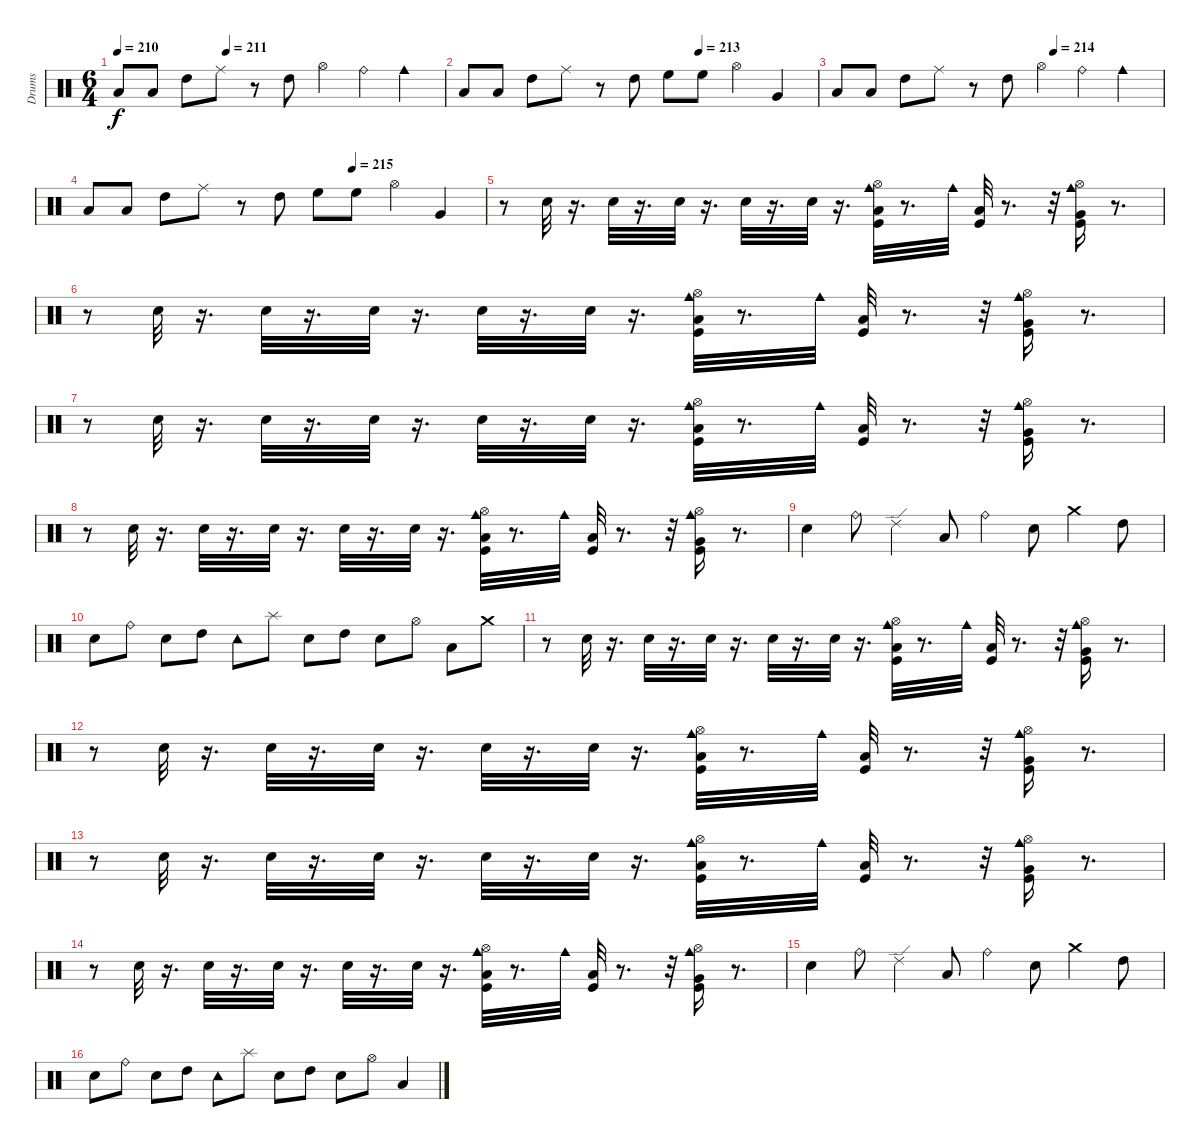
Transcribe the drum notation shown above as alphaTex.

\track ("Drums" "Drums") {instrument percussion}
\staff {score}
\articulation defaults
\ts (6 4)
\tempo 210
\tempo (211 0.3333333333333333)
\clef neutral
\ks c "Low Floor Tom (hit)".8{dy f} "Low Floor Tom (hit)".8 "High Tom (hit)".8 "Ride (middle)".8
r.8 "High Tom (hit)".8 "Hi-Hat (open)".4 "Ride (bell)".4 "Cowbell medium (hit)".4 |
\tempo (213 0.6666666666666666)
"Low Floor Tom (hit)".8 "Low Floor Tom (hit)".8 "High Tom (hit)".8 "Ride (middle)".8 r.8 "High Tom (hit)".8 "High Floor Tom (hit)".8 "High Floor Tom (hit)".8 "Hi-Hat (open)".4 "Very Low Tom (hit)".4 |
\tempo (214 0.6666666666666666)
"Low Floor Tom (hit)".8 "Low Floor Tom (hit)".8 "High Tom (hit)".8 "Ride (middle)".8 r.8 "High Tom (hit)".8 "Hi-Hat (open)".4 "Ride (bell)".4 "Cowbell medium (hit)".4 |
\tempo (215 0.6666666666666666)
"Low Floor Tom (hit)".8 "Low Floor Tom (hit)".8 "High Tom (hit)".8 "Ride (middle)".8 r.8 "High Tom (hit)".8 "High Floor Tom (hit)".8 "High Floor Tom (hit)".8 "Hi-Hat (open)".4 "Very Low Tom (hit)".4 |
r.8 "Snare (hit) 2".32 r.16{d} "Snare (hit) 2".32 r.16{d} "Snare (hit) 2".32 r.16{d} "Snare (hit) 2".32 r.16{d} "Snare (hit) 2".32 r.16{d} ("Kick (hit)" "Hi-Hat (open)" "Cowbell medium (hit)" "Low Floor Tom (hit)").32 r.8{d} "Cowbell medium (hit)".32 ("Kick (hit)" "Low Floor Tom (hit)").32 r.8{d} r.32 ("Hi-Hat (open)" "Kick (hit)" "Cowbell medium (hit)" "Very Low Tom (hit)").16 r.8{d} |
r.8 "Snare (hit) 2".32 r.16{d} "Snare (hit) 2".32 r.16{d} "Snare (hit) 2".32 r.16{d} "Snare (hit) 2".32 r.16{d} "Snare (hit) 2".32 r.16{d} ("Kick (hit)" "Hi-Hat (open)" "Cowbell medium (hit)" "Low Floor Tom (hit)").32 r.8{d} "Cowbell medium (hit)".32 ("Kick (hit)" "Low Floor Tom (hit)").32 r.8{d} r.32 ("Hi-Hat (open)" "Kick (hit)" "Cowbell medium (hit)" "Very Low Tom (hit)").16 r.8{d} |
r.8 "Snare (hit) 2".32 r.16{d} "Snare (hit) 2".32 r.16{d} "Snare (hit) 2".32 r.16{d} "Snare (hit) 2".32 r.16{d} "Snare (hit) 2".32 r.16{d} ("Kick (hit)" "Hi-Hat (open)" "Cowbell medium (hit)" "Low Floor Tom (hit)").32 r.8{d} "Cowbell medium (hit)".32 ("Kick (hit)" "Low Floor Tom (hit)").32 r.8{d} r.32 ("Hi-Hat (open)" "Kick (hit)" "Cowbell medium (hit)" "Very Low Tom (hit)").16 r.8{d} |
r.8 "Snare (hit) 2".32 r.16{d} "Snare (hit) 2".32 r.16{d} "Snare (hit) 2".32 r.16{d} "Snare (hit) 2".32 r.16{d} "Snare (hit) 2".32 r.16{d} ("Kick (hit)" "Hi-Hat (open)" "Cowbell medium (hit)" "Low Floor Tom (hit)").32 r.8{d} "Cowbell medium (hit)".32 ("Kick (hit)" "Low Floor Tom (hit)").32 r.8{d} r.32 ("Hi-Hat (open)" "Kick (hit)" "Cowbell medium (hit)" "Very Low Tom (hit)").16 r.8{d} |
"Electric Snare (hit)".4 "Ride (bell)".8 "Ride (edge) 2".4 "Low Tom (hit)".8 "Ride (bell)".4 "Electric Snare (hit)".8 "Crash medium (hit)".4 "High Tom (hit)".8 |
"Snare (hit) 2".8 "Ride (bell)".8 "Snare (hit) 2".8 "High Tom (hit)".8 "Tambourine (hit)".8 "Splash (hit)".8 "Snare (hit) 2".8 "High Tom (hit)".8 "Snare (hit) 2".8 "Hi-Hat (open)".8 "Low Tom (hit)".8 "Crash medium (hit)".8 |
r.8 "Snare (hit) 2".32 r.16{d} "Snare (hit) 2".32 r.16{d} "Snare (hit) 2".32 r.16{d} "Snare (hit) 2".32 r.16{d} "Snare (hit) 2".32 r.16{d} ("Kick (hit)" "Hi-Hat (open)" "Cowbell medium (hit)" "Low Floor Tom (hit)").32 r.8{d} "Cowbell medium (hit)".32 ("Kick (hit)" "Low Floor Tom (hit)").32 r.8{d} r.32 ("Hi-Hat (open)" "Kick (hit)" "Cowbell medium (hit)" "Very Low Tom (hit)").16 r.8{d} |
r.8 "Snare (hit) 2".32 r.16{d} "Snare (hit) 2".32 r.16{d} "Snare (hit) 2".32 r.16{d} "Snare (hit) 2".32 r.16{d} "Snare (hit) 2".32 r.16{d} ("Kick (hit)" "Hi-Hat (open)" "Cowbell medium (hit)" "Low Floor Tom (hit)").32 r.8{d} "Cowbell medium (hit)".32 ("Kick (hit)" "Low Floor Tom (hit)").32 r.8{d} r.32 ("Hi-Hat (open)" "Kick (hit)" "Cowbell medium (hit)" "Very Low Tom (hit)").16 r.8{d} |
r.8 "Snare (hit) 2".32 r.16{d} "Snare (hit) 2".32 r.16{d} "Snare (hit) 2".32 r.16{d} "Snare (hit) 2".32 r.16{d} "Snare (hit) 2".32 r.16{d} ("Kick (hit)" "Hi-Hat (open)" "Cowbell medium (hit)" "Low Floor Tom (hit)").32 r.8{d} "Cowbell medium (hit)".32 ("Kick (hit)" "Low Floor Tom (hit)").32 r.8{d} r.32 ("Hi-Hat (open)" "Kick (hit)" "Cowbell medium (hit)" "Very Low Tom (hit)").16 r.8{d} |
r.8 "Snare (hit) 2".32 r.16{d} "Snare (hit) 2".32 r.16{d} "Snare (hit) 2".32 r.16{d} "Snare (hit) 2".32 r.16{d} "Snare (hit) 2".32 r.16{d} ("Kick (hit)" "Hi-Hat (open)" "Cowbell medium (hit)" "Low Floor Tom (hit)").32 r.8{d} "Cowbell medium (hit)".32 ("Kick (hit)" "Low Floor Tom (hit)").32 r.8{d} r.32 ("Hi-Hat (open)" "Kick (hit)" "Cowbell medium (hit)" "Very Low Tom (hit)").16 r.8{d} |
"Electric Snare (hit)".4 "Ride (bell)".8 "Ride (edge) 2".4 "Low Tom (hit)".8 "Ride (bell)".4 "Electric Snare (hit)".8 "Crash medium (hit)".4 "High Tom (hit)".8 |
"Snare (hit) 2".8 "Ride (bell)".8 "Snare (hit) 2".8 "High Tom (hit)".8 "Tambourine (hit)".8 "Splash (hit)".8 "Snare (hit) 2".8 "High Tom (hit)".8 "Snare (hit) 2".8 "Hi-Hat (open)".8 "Low Tom (hit)".4
